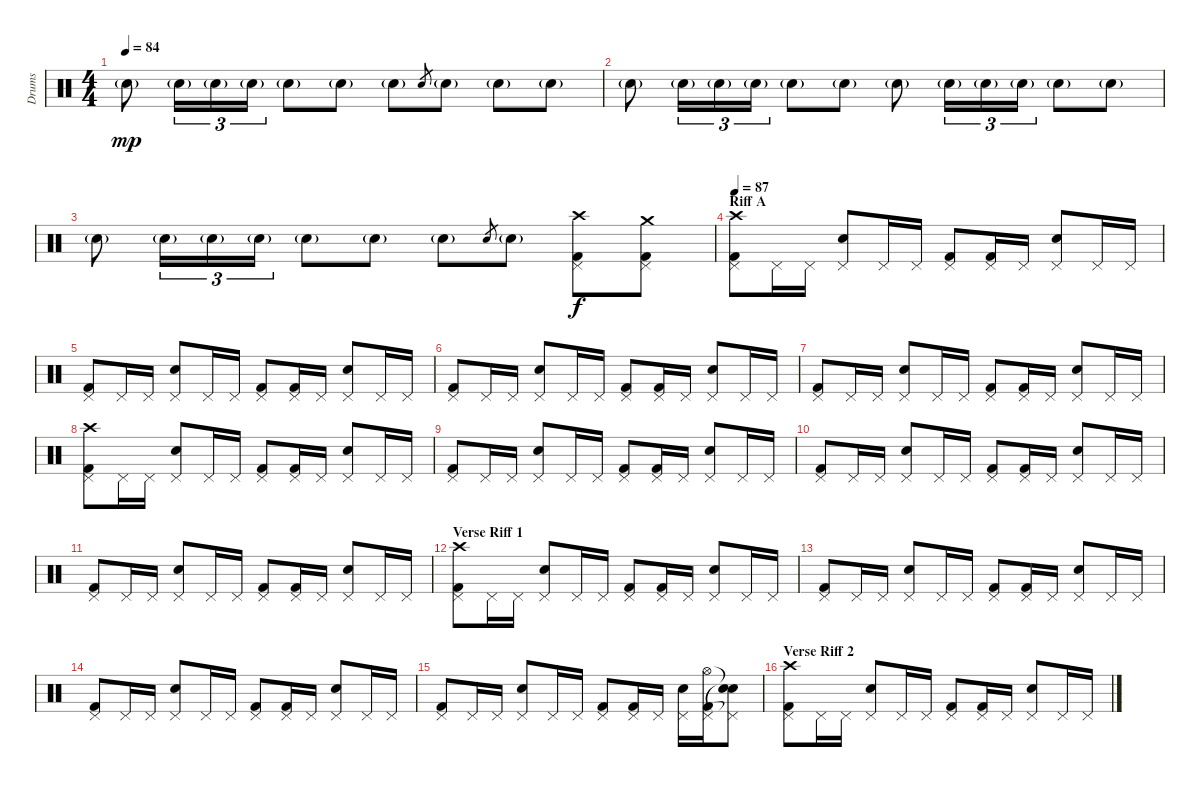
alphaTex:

\track ("Drums" "Drums") {instrument percussion}
\staff {score}
\articulation defaults
\ts (4 4)
\tempo 84
\clef neutral
\ks c "Electric Snare (hit)"{g}.8{dy mp} "Electric Snare (hit)"{g}.16{tu (3 2)} "Electric Snare (hit)"{g}.16{tu (3 2)} "Electric Snare (hit)"{g}.16{tu (3 2)} "Electric Snare (hit)"{g}.8 "Electric Snare (hit)"{g}.8 "Electric Snare (hit)"{g}.8 "Electric Snare (hit)".8{gr} "Electric Snare (hit)"{g}.8 "Electric Snare (hit)"{g}.8 "Electric Snare (hit)"{g}.8
|
"Electric Snare (hit)"{g}.8 "Electric Snare (hit)"{g}.16{tu (3 2)} "Electric Snare (hit)"{g}.16{tu (3 2)} "Electric Snare (hit)"{g}.16{tu (3 2)} "Electric Snare (hit)"{g}.8 "Electric Snare (hit)"{g}.8 "Electric Snare (hit)"{g}.8 "Electric Snare (hit)"{g}.16{tu (3 2)} "Electric Snare (hit)"{g}.16{tu (3 2)} "Electric Snare (hit)"{g}.16{tu (3 2)} "Electric Snare (hit)"{g}.8 "Electric Snare (hit)"{g}.8 |
"Electric Snare (hit)"{g}.8 "Electric Snare (hit)"{g}.16{tu (3 2)} "Electric Snare (hit)"{g}.16{tu (3 2)} "Electric Snare (hit)"{g}.16{tu (3 2)} "Electric Snare (hit)"{g}.8 "Electric Snare (hit)"{g}.8 "Electric Snare (hit)"{g}.8 "Electric Snare (hit)".8{gr} "Electric Snare (hit)"{g}.8 ("Kick (hit) 2" "Pedal Hi-Hat (hit)" "Crash high (hit)").8{dy f} ("Kick (hit) 2" "Pedal Hi-Hat (hit)" "Crash medium (hit)").8 |
\section ("" "Riff A")
\tempo 87
("Kick (hit) 2" "Pedal Hi-Hat (hit)" "Crash high (hit)").8 "Pedal Hi-Hat (hit)".16 "Pedal Hi-Hat (hit)".16 ("Snare (hit) 2" "Pedal Hi-Hat (hit)").8 "Pedal Hi-Hat (hit)".16 "Pedal Hi-Hat (hit)".16 ("Kick (hit) 2" "Pedal Hi-Hat (hit)").8 ("Kick (hit) 2" "Pedal Hi-Hat (hit)").16 "Pedal Hi-Hat (hit)".16 ("Snare (hit) 2" "Pedal Hi-Hat (hit)").8 "Pedal Hi-Hat (hit)".16 "Pedal Hi-Hat (hit)".16 |
("Kick (hit) 2" "Pedal Hi-Hat (hit)").8 "Pedal Hi-Hat (hit)".16 "Pedal Hi-Hat (hit)".16 ("Snare (hit) 2" "Pedal Hi-Hat (hit)").8 "Pedal Hi-Hat (hit)".16 "Pedal Hi-Hat (hit)".16 ("Kick (hit) 2" "Pedal Hi-Hat (hit)").8 ("Kick (hit) 2" "Pedal Hi-Hat (hit)").16 "Pedal Hi-Hat (hit)".16 ("Snare (hit) 2" "Pedal Hi-Hat (hit)").8 "Pedal Hi-Hat (hit)".16 "Pedal Hi-Hat (hit)".16 |
("Kick (hit) 2" "Pedal Hi-Hat (hit)").8 "Pedal Hi-Hat (hit)".16 "Pedal Hi-Hat (hit)".16 ("Snare (hit) 2" "Pedal Hi-Hat (hit)").8 "Pedal Hi-Hat (hit)".16 "Pedal Hi-Hat (hit)".16 ("Kick (hit) 2" "Pedal Hi-Hat (hit)").8 ("Kick (hit) 2" "Pedal Hi-Hat (hit)").16 "Pedal Hi-Hat (hit)".16 ("Snare (hit) 2" "Pedal Hi-Hat (hit)").8 "Pedal Hi-Hat (hit)".16 "Pedal Hi-Hat (hit)".16 |
("Kick (hit) 2" "Pedal Hi-Hat (hit)").8 "Pedal Hi-Hat (hit)".16 "Pedal Hi-Hat (hit)".16 ("Snare (hit) 2" "Pedal Hi-Hat (hit)").8 "Pedal Hi-Hat (hit)".16 "Pedal Hi-Hat (hit)".16 ("Kick (hit) 2" "Pedal Hi-Hat (hit)").8 ("Kick (hit) 2" "Pedal Hi-Hat (hit)").16 "Pedal Hi-Hat (hit)".16 ("Snare (hit) 2" "Pedal Hi-Hat (hit)").8 "Pedal Hi-Hat (hit)".16 "Pedal Hi-Hat (hit)".16 |
("Kick (hit) 2" "Pedal Hi-Hat (hit)" "Crash high (hit)").8 "Pedal Hi-Hat (hit)".16 "Pedal Hi-Hat (hit)".16 ("Snare (hit) 2" "Pedal Hi-Hat (hit)").8 "Pedal Hi-Hat (hit)".16 "Pedal Hi-Hat (hit)".16 ("Kick (hit) 2" "Pedal Hi-Hat (hit)").8 ("Kick (hit) 2" "Pedal Hi-Hat (hit)").16 "Pedal Hi-Hat (hit)".16 ("Snare (hit) 2" "Pedal Hi-Hat (hit)").8 "Pedal Hi-Hat (hit)".16 "Pedal Hi-Hat (hit)".16 |
("Kick (hit) 2" "Pedal Hi-Hat (hit)").8 "Pedal Hi-Hat (hit)".16 "Pedal Hi-Hat (hit)".16 ("Snare (hit) 2" "Pedal Hi-Hat (hit)").8 "Pedal Hi-Hat (hit)".16 "Pedal Hi-Hat (hit)".16 ("Kick (hit) 2" "Pedal Hi-Hat (hit)").8 ("Kick (hit) 2" "Pedal Hi-Hat (hit)").16 "Pedal Hi-Hat (hit)".16 ("Snare (hit) 2" "Pedal Hi-Hat (hit)").8 "Pedal Hi-Hat (hit)".16 "Pedal Hi-Hat (hit)".16 |
("Kick (hit) 2" "Pedal Hi-Hat (hit)").8 "Pedal Hi-Hat (hit)".16 "Pedal Hi-Hat (hit)".16 ("Snare (hit) 2" "Pedal Hi-Hat (hit)").8 "Pedal Hi-Hat (hit)".16 "Pedal Hi-Hat (hit)".16 ("Kick (hit) 2" "Pedal Hi-Hat (hit)").8 ("Kick (hit) 2" "Pedal Hi-Hat (hit)").16 "Pedal Hi-Hat (hit)".16 ("Snare (hit) 2" "Pedal Hi-Hat (hit)").8 "Pedal Hi-Hat (hit)".16 "Pedal Hi-Hat (hit)".16 |
("Kick (hit) 2" "Pedal Hi-Hat (hit)").8 "Pedal Hi-Hat (hit)".16 "Pedal Hi-Hat (hit)".16 ("Snare (hit) 2" "Pedal Hi-Hat (hit)").8 "Pedal Hi-Hat (hit)".16 "Pedal Hi-Hat (hit)".16 ("Kick (hit) 2" "Pedal Hi-Hat (hit)").8 ("Kick (hit) 2" "Pedal Hi-Hat (hit)").16 "Pedal Hi-Hat (hit)".16 ("Snare (hit) 2" "Pedal Hi-Hat (hit)").8 "Pedal Hi-Hat (hit)".16 "Pedal Hi-Hat (hit)".16 |
\section ("" "Verse Riff 1")
("Kick (hit) 2" "Pedal Hi-Hat (hit)" "Crash high (hit)").8 "Pedal Hi-Hat (hit)".16 "Pedal Hi-Hat (hit)".16 ("Snare (hit) 2" "Pedal Hi-Hat (hit)").8 "Pedal Hi-Hat (hit)".16 "Pedal Hi-Hat (hit)".16 ("Kick (hit) 2" "Pedal Hi-Hat (hit)").8 ("Kick (hit) 2" "Pedal Hi-Hat (hit)").16 "Pedal Hi-Hat (hit)".16 ("Snare (hit) 2" "Pedal Hi-Hat (hit)").8 "Pedal Hi-Hat (hit)".16 "Pedal Hi-Hat (hit)".16 |
("Kick (hit) 2" "Pedal Hi-Hat (hit)").8 "Pedal Hi-Hat (hit)".16 "Pedal Hi-Hat (hit)".16 ("Snare (hit) 2" "Pedal Hi-Hat (hit)").8 "Pedal Hi-Hat (hit)".16 "Pedal Hi-Hat (hit)".16 ("Kick (hit) 2" "Pedal Hi-Hat (hit)").8 ("Kick (hit) 2" "Pedal Hi-Hat (hit)").16 "Pedal Hi-Hat (hit)".16 ("Snare (hit) 2" "Pedal Hi-Hat (hit)").8 "Pedal Hi-Hat (hit)".16 "Pedal Hi-Hat (hit)".16 |
("Kick (hit) 2" "Pedal Hi-Hat (hit)").8 "Pedal Hi-Hat (hit)".16 "Pedal Hi-Hat (hit)".16 ("Snare (hit) 2" "Pedal Hi-Hat (hit)").8 "Pedal Hi-Hat (hit)".16 "Pedal Hi-Hat (hit)".16 ("Kick (hit) 2" "Pedal Hi-Hat (hit)").8 ("Kick (hit) 2" "Pedal Hi-Hat (hit)").16 "Pedal Hi-Hat (hit)".16 ("Snare (hit) 2" "Pedal Hi-Hat (hit)").8 "Pedal Hi-Hat (hit)".16 "Pedal Hi-Hat (hit)".16 |
("Kick (hit) 2" "Pedal Hi-Hat (hit)").8 "Pedal Hi-Hat (hit)".16 "Pedal Hi-Hat (hit)".16 ("Snare (hit) 2" "Pedal Hi-Hat (hit)").8 "Pedal Hi-Hat (hit)".16 "Pedal Hi-Hat (hit)".16 ("Kick (hit) 2" "Pedal Hi-Hat (hit)").8 ("Kick (hit) 2" "Pedal Hi-Hat (hit)").16 "Pedal Hi-Hat (hit)".16 ("Snare (hit) 2" "Pedal Hi-Hat (hit)").16 ("Kick (hit) 2" "Pedal Hi-Hat (hit)" "Hi-Hat (open)").16 ("Pedal Hi-Hat (hit)"{t} "Snare (hit)"{t} "Snare (hit)"{t}).8 |
\section ("" "Verse Riff 2")
("Kick (hit) 2" "Pedal Hi-Hat (hit)" "Crash high (hit)").8 "Pedal Hi-Hat (hit)".16 "Pedal Hi-Hat (hit)".16 ("Snare (hit) 2" "Pedal Hi-Hat (hit)").8 "Pedal Hi-Hat (hit)".16 "Pedal Hi-Hat (hit)".16 ("Kick (hit) 2" "Pedal Hi-Hat (hit)").8 ("Kick (hit) 2" "Pedal Hi-Hat (hit)").16 "Pedal Hi-Hat (hit)".16 ("Snare (hit) 2" "Pedal Hi-Hat (hit)").8 "Pedal Hi-Hat (hit)".16 "Pedal Hi-Hat (hit)".16
